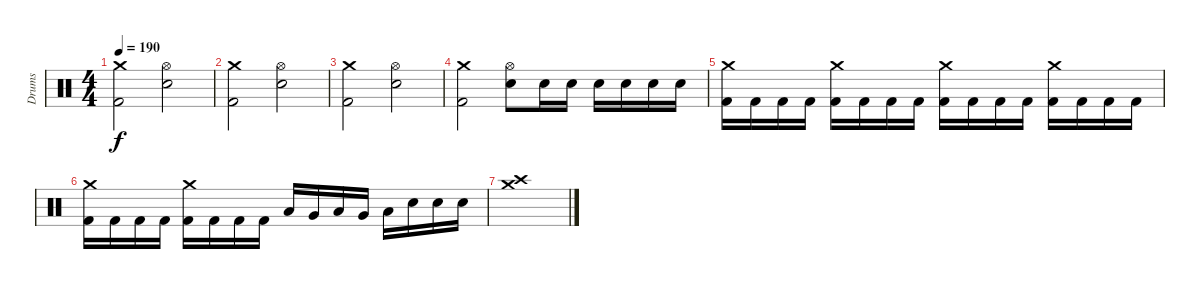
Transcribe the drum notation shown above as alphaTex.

\track ("Drums" "Drums") {instrument percussion}
\staff {score}
\articulation defaults
\ts (4 4)
\tempo 190
\clef neutral
\ks c
("Crash medium (hit)" "Kick (hit) 2").2{dy f} ("Hi-Hat (open)" "Snare (hit) 2").2 |
("Crash medium (hit)" "Kick (hit) 2").2 ("Hi-Hat (open)" "Snare (hit) 2").2 |
("Crash medium (hit)" "Kick (hit) 2").2 ("Hi-Hat (open)" "Snare (hit) 2").2 |
("Crash medium (hit)" "Kick (hit) 2").2 ("Hi-Hat (open)" "Snare (hit) 2").8 "Snare (hit) 2".16 "Snare (hit) 2".16 "Snare (hit) 2".16 "Snare (hit) 2".16 "Snare (hit) 2".16 "Snare (hit) 2".16 |
("Crash medium (hit)" "Kick (hit) 2").16 "Kick (hit) 2".16 "Kick (hit) 2".16 "Kick (hit) 2".16 ("Crash medium (hit)" "Kick (hit) 2").16 "Kick (hit) 2".16 "Kick (hit) 2".16 "Kick (hit) 2".16 ("Crash medium (hit)" "Kick (hit) 2").16 "Kick (hit) 2".16 "Kick (hit) 2".16 "Kick (hit) 2".16 ("Crash medium (hit)" "Kick (hit) 2").16 "Kick (hit) 2".16 "Kick (hit) 2".16 "Kick (hit) 2".16 |
("Crash medium (hit)" "Kick (hit) 2").16 "Kick (hit) 2".16 "Kick (hit) 2".16 "Kick (hit) 2".16 ("Crash medium (hit)" "Kick (hit) 2").16 "Kick (hit) 2".16 "Kick (hit) 2".16 "Kick (hit) 2".16 "Low Floor Tom (hit)".16 "Very Low Tom (hit)".16 "Low Floor Tom (hit)".16 "Very Low Tom (hit)".16 "Low Floor Tom (hit)".16 "Snare (hit) 2".16 "Snare (hit) 2".16 "Snare (hit) 2".16 |
("Crash high (hit)" "Crash medium (hit)").1
